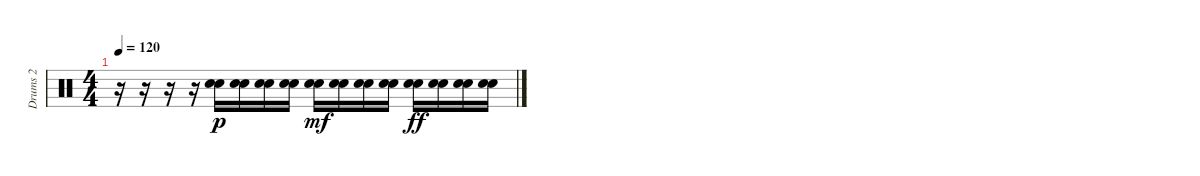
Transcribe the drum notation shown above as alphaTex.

\track ("Drums 2" "Drums 2") {instrument percussion}
\staff {score}
\articulation defaults
\ts (4 4)
\tempo 120
\clef neutral
\ks c
r.16{dy ff volume 0} r.16 r.16 r.16 ("Snare (hit) 2" "Snare (hit)").16{dy p} ("Snare (hit) 2" "Snare (hit)").16 ("Snare (hit) 2" "Snare (hit)").16 ("Snare (hit) 2" "Snare (hit)").16 ("Snare (hit) 2" "Snare (hit)").16{dy mf} ("Snare (hit) 2" "Snare (hit)").16 ("Snare (hit) 2" "Snare (hit)").16 ("Snare (hit) 2" "Snare (hit)").16 ("Snare (hit) 2" "Snare (hit)").16{dy ff} ("Snare (hit) 2" "Snare (hit)").16 ("Snare (hit) 2" "Snare (hit)").16 ("Snare (hit) 2" "Snare (hit)").16
